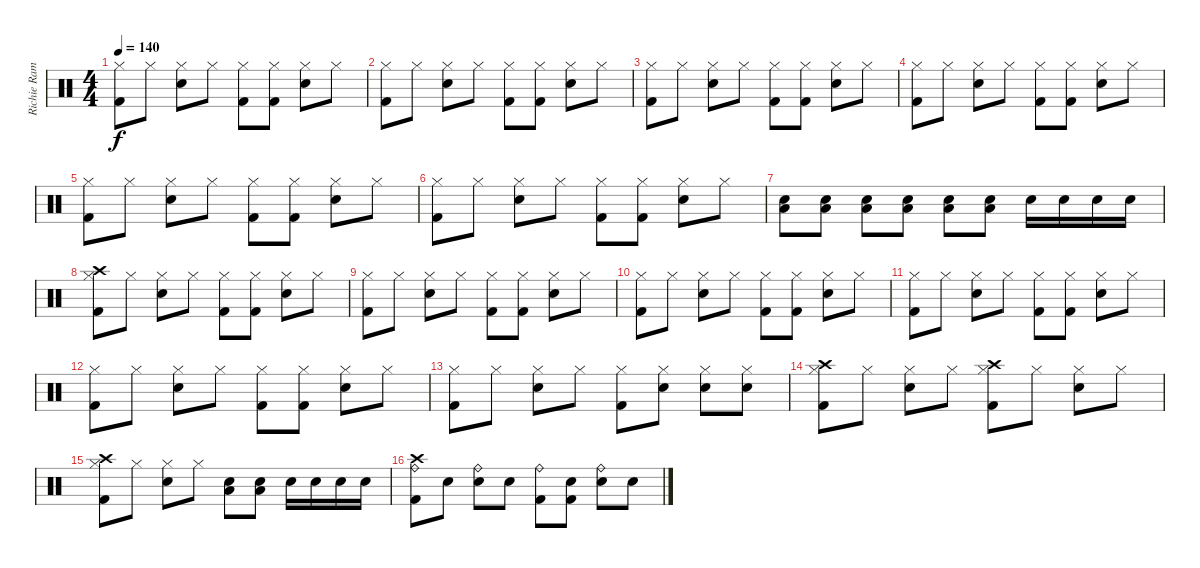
\track ("Richie Ramone - Drums" "Richie Ram") {instrument percussion}
\staff {score}
\articulation defaults
\ts (4 4)
\tempo 140
\clef neutral
\ks c
("Hi-Hat (closed)" "Kick (hit) 2").8{dy f} "Hi-Hat (closed)".8 ("Hi-Hat (closed)" "Electric Snare (hit)").8 "Hi-Hat (closed)".8 ("Hi-Hat (closed)" "Kick (hit) 2").8 ("Hi-Hat (closed)" "Kick (hit) 2").8 ("Hi-Hat (closed)" "Electric Snare (hit)").8 "Hi-Hat (closed)".8 |
("Hi-Hat (closed)" "Kick (hit) 2").8 "Hi-Hat (closed)".8 ("Hi-Hat (closed)" "Electric Snare (hit)").8 "Hi-Hat (closed)".8 ("Hi-Hat (closed)" "Kick (hit) 2").8 ("Hi-Hat (closed)" "Kick (hit) 2").8 ("Hi-Hat (closed)" "Electric Snare (hit)").8 "Hi-Hat (closed)".8 |
("Hi-Hat (closed)" "Kick (hit) 2").8 "Hi-Hat (closed)".8 ("Hi-Hat (closed)" "Electric Snare (hit)").8 "Hi-Hat (closed)".8 ("Hi-Hat (closed)" "Kick (hit) 2").8 ("Hi-Hat (closed)" "Kick (hit) 2").8 ("Hi-Hat (closed)" "Electric Snare (hit)").8 "Hi-Hat (closed)".8 |
("Hi-Hat (closed)" "Kick (hit) 2").8 "Hi-Hat (closed)".8 ("Hi-Hat (closed)" "Electric Snare (hit)").8 "Hi-Hat (closed)".8 ("Hi-Hat (closed)" "Kick (hit) 2").8 ("Hi-Hat (closed)" "Kick (hit) 2").8 ("Hi-Hat (closed)" "Electric Snare (hit)").8 "Hi-Hat (closed)".8 |
("Hi-Hat (closed)" "Kick (hit) 2").8 "Hi-Hat (closed)".8 ("Hi-Hat (closed)" "Electric Snare (hit)").8 "Hi-Hat (closed)".8 ("Hi-Hat (closed)" "Kick (hit) 2").8 ("Hi-Hat (closed)" "Kick (hit) 2").8 ("Hi-Hat (closed)" "Electric Snare (hit)").8 "Hi-Hat (closed)".8 |
("Hi-Hat (closed)" "Kick (hit) 2").8 "Hi-Hat (closed)".8 ("Hi-Hat (closed)" "Electric Snare (hit)").8 "Hi-Hat (closed)".8 ("Hi-Hat (closed)" "Kick (hit) 2").8 ("Hi-Hat (closed)" "Kick (hit) 2").8 ("Hi-Hat (closed)" "Electric Snare (hit)").8 "Hi-Hat (closed)".8 |
("Electric Snare (hit)" "Low Tom (hit)").8 ("Electric Snare (hit)" "Low Tom (hit)").8 ("Electric Snare (hit)" "Low Tom (hit)").8 ("Electric Snare (hit)" "Low Tom (hit)").8 ("Electric Snare (hit)" "Low Tom (hit)").8 ("Electric Snare (hit)" "Low Tom (hit)").8 "Electric Snare (hit)".16 "Electric Snare (hit)".16 "Electric Snare (hit)".16 "Electric Snare (hit)".16 |
("Hi-Hat (closed)" "Kick (hit) 2" "Crash high (hit)").8 "Hi-Hat (closed)".8 ("Hi-Hat (closed)" "Electric Snare (hit)").8 "Hi-Hat (closed)".8 ("Hi-Hat (closed)" "Kick (hit) 2").8 ("Hi-Hat (closed)" "Kick (hit) 2").8 ("Hi-Hat (closed)" "Electric Snare (hit)").8 "Hi-Hat (closed)".8 |
("Hi-Hat (closed)" "Kick (hit) 2").8 "Hi-Hat (closed)".8 ("Hi-Hat (closed)" "Electric Snare (hit)").8 "Hi-Hat (closed)".8 ("Hi-Hat (closed)" "Kick (hit) 2").8 ("Hi-Hat (closed)" "Kick (hit) 2").8 ("Hi-Hat (closed)" "Electric Snare (hit)").8 "Hi-Hat (closed)".8 |
("Hi-Hat (closed)" "Kick (hit) 2").8 "Hi-Hat (closed)".8 ("Hi-Hat (closed)" "Electric Snare (hit)").8 "Hi-Hat (closed)".8 ("Hi-Hat (closed)" "Kick (hit) 2").8 ("Hi-Hat (closed)" "Kick (hit) 2").8 ("Hi-Hat (closed)" "Electric Snare (hit)").8 "Hi-Hat (closed)".8 |
("Hi-Hat (closed)" "Kick (hit) 2").8 "Hi-Hat (closed)".8 ("Hi-Hat (closed)" "Electric Snare (hit)").8 "Hi-Hat (closed)".8 ("Hi-Hat (closed)" "Kick (hit) 2").8 ("Hi-Hat (closed)" "Kick (hit) 2").8 ("Hi-Hat (closed)" "Electric Snare (hit)").8 "Hi-Hat (closed)".8 |
("Hi-Hat (closed)" "Kick (hit) 2").8 "Hi-Hat (closed)".8 ("Hi-Hat (closed)" "Electric Snare (hit)").8 "Hi-Hat (closed)".8 ("Hi-Hat (closed)" "Kick (hit) 2").8 ("Hi-Hat (closed)" "Kick (hit) 2").8 ("Hi-Hat (closed)" "Electric Snare (hit)").8 "Hi-Hat (closed)".8 |
("Hi-Hat (closed)" "Kick (hit) 2").8 "Hi-Hat (closed)".8 ("Hi-Hat (closed)" "Electric Snare (hit)").8 "Hi-Hat (closed)".8 ("Hi-Hat (closed)" "Kick (hit) 2").8 ("Hi-Hat (closed)" "Electric Snare (hit)").8 ("Hi-Hat (closed)" "Electric Snare (hit)").8 ("Hi-Hat (closed)" "Electric Snare (hit)").8 |
("Hi-Hat (closed)" "Crash high (hit)" "Kick (hit) 2").8 "Hi-Hat (closed)".8 ("Hi-Hat (closed)" "Electric Snare (hit)").8 "Hi-Hat (closed)".8 ("Hi-Hat (closed)" "Crash high (hit)" "Kick (hit) 2").8 "Hi-Hat (closed)".8 ("Hi-Hat (closed)" "Electric Snare (hit)").8 "Hi-Hat (closed)".8 |
("Hi-Hat (closed)" "Crash high (hit)" "Kick (hit) 2").8 "Hi-Hat (closed)".8 ("Hi-Hat (closed)" "Electric Snare (hit)").8 "Hi-Hat (closed)".8 ("Electric Snare (hit)" "Low Tom (hit)").8 ("Electric Snare (hit)" "Low Tom (hit)").8 "Electric Snare (hit)".16 "Electric Snare (hit)".16 "Electric Snare (hit)".16 "Electric Snare (hit)".16 |
("Ride (bell)" "Kick (hit) 2" "Crash high (hit)").8 "Snare (hit)"{x}.8 ("Ride (bell)" "Electric Snare (hit)").8 "Snare (hit)"{x}.8 ("Ride (bell)" "Kick (hit) 2").8 ("Snare (hit)"{x} "Kick (hit) 2").8 ("Ride (bell)" "Electric Snare (hit)").8 "Snare (hit)"{x}.8
